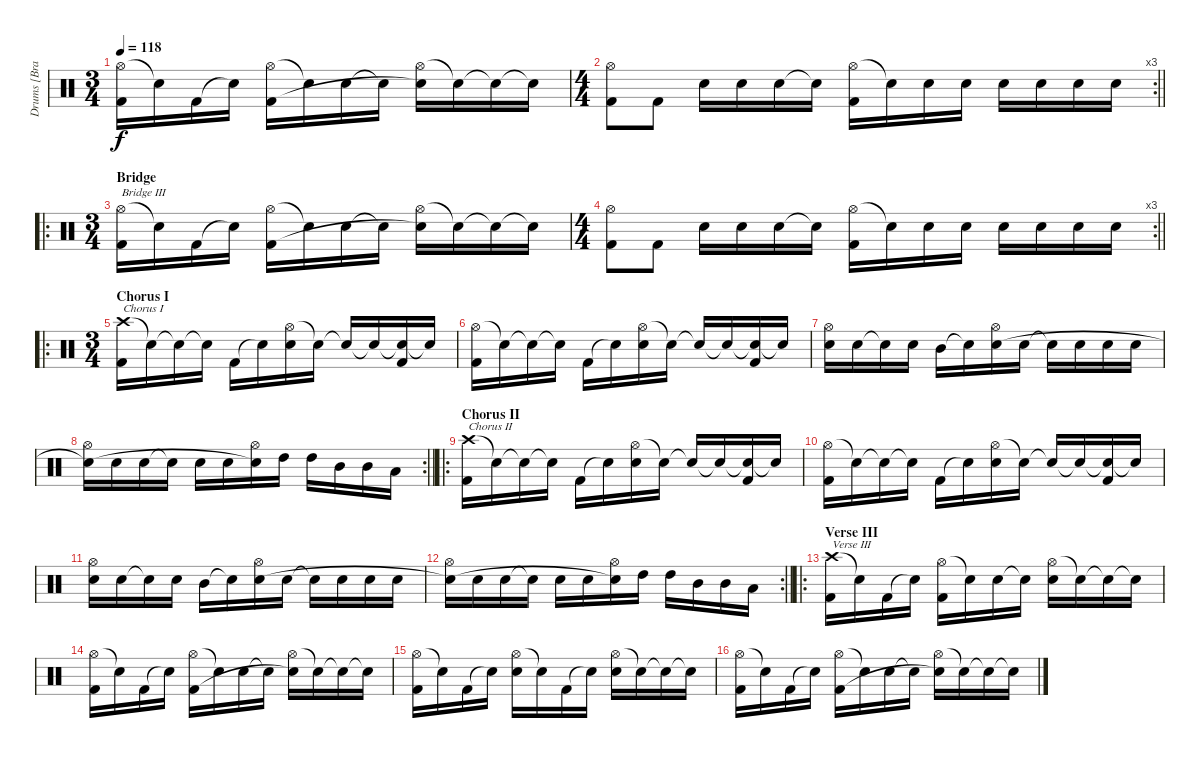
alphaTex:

\track ("Drums [Brann Dailor]" "Drums [Bra") {instrument percussion}
\staff {score}
\articulation defaults
\ts (3 4)
\tempo 118
\clef neutral
\ks c
("Hi-Hat (open)" "Kick (hit) 2").16{dy f} "Snare (hit)"{t}.16 "Kick (hit) 2".16 "Snare (hit)"{t}.16 ("Hi-Hat (open)" "Kick (hit) 2").16 "Snare (hit)"{t}.16 "Electric Snare (hit)".16 "Snare (hit)"{t}.16 ("Hi-Hat (open)" "Electric Snare (hit)"{t}).16 "Snare (hit)"{t}.16 "Snare (hit)"{t}.16 "Snare (hit)"{t}.16 |
\rc 3
\ts (4 4)
\barLineRight lightlight
("Hi-Hat (open)" "Kick (hit) 2").8 "Kick (hit) 2".8 "Electric Snare (hit)".16 "Electric Snare (hit)".16 "Electric Snare (hit)".16 "Snare (hit)"{t}.16 ("Hi-Hat (open)" "Kick (hit) 2").16 "Snare (hit)"{t}.16 "Electric Snare (hit)".16 "Electric Snare (hit)".16 "Electric Snare (hit)".16 "Electric Snare (hit)".16 "Electric Snare (hit)".16 "Electric Snare (hit)".16 |
\ro
\ts (3 4)
\section ("" "Bridge")
("Hi-Hat (open)" "Kick (hit) 2").16{txt "Bridge III"} "Snare (hit)"{t}.16 "Kick (hit) 2".16 "Snare (hit)"{t}.16 ("Hi-Hat (open)" "Kick (hit) 2").16 "Snare (hit)"{t}.16 "Electric Snare (hit)".16 "Snare (hit)"{t}.16 ("Hi-Hat (open)" "Electric Snare (hit)"{t}).16 "Snare (hit)"{t}.16 "Snare (hit)"{t}.16 "Snare (hit)"{t}.16 |
\rc 3
\ts (4 4)
\barLineRight lightlight
("Hi-Hat (open)" "Kick (hit) 2").8 "Kick (hit) 2".8 "Electric Snare (hit)".16 "Electric Snare (hit)".16 "Electric Snare (hit)".16 "Snare (hit)"{t}.16 ("Hi-Hat (open)" "Kick (hit) 2").16 "Snare (hit)"{t}.16 "Electric Snare (hit)".16 "Electric Snare (hit)".16 "Electric Snare (hit)".16 "Electric Snare (hit)".16 "Electric Snare (hit)".16 "Electric Snare (hit)".16 |
\ro
\ts (3 4)
\section ("" "Chorus I")
("Crash high (hit)" "Kick (hit) 2").16{txt "Chorus I"} "Snare (hit)"{t}.16 "Snare (hit)"{t}.16 "Snare (hit)"{t}.16 "Kick (hit) 2".16 "Snare (hit)"{t}.16 ("Hi-Hat (open)" "Electric Snare (hit)").16 "Snare (hit)"{t}.16 "Snare (hit)"{t}.16 "Snare (hit)"{t}.16 ("Snare (hit)"{t} "Kick (hit) 2").16 "Snare (hit)"{t}.16 |
("Hi-Hat (open)" "Kick (hit) 2").16 "Snare (hit)"{t}.16 "Snare (hit)"{t}.16 "Snare (hit)"{t}.16 "Kick (hit) 2".16 "Snare (hit)"{t}.16 ("Hi-Hat (open)" "Electric Snare (hit)").16 "Snare (hit)"{t}.16 "Snare (hit)"{t}.16 "Snare (hit)"{t}.16 ("Snare (hit)"{t} "Kick (hit) 2").16 "Snare (hit)"{t}.16 |
("Hi-Hat (open)" "Electric Snare (hit)").16 "Electric Snare (hit)".16 "Snare (hit)"{t}.16 "Snare (hit)".16 "Mid Tom (hit)".16 "Snare (hit)"{t}.16 ("Hi-Hat (open)" "Electric Snare (hit)").16 "Electric Snare (hit)".16 "Snare (hit)"{t}.16 "Electric Snare (hit)".16 "Electric Snare (hit)".16 "Electric Snare (hit)".16 |
\rc 2
\barLineRight lightlight
("Hi-Hat (open)" "Snare (hit)"{t}).16 "Electric Snare (hit)".16 "Electric Snare (hit)".16 "Snare (hit)"{t}.16 "Electric Snare (hit)".16 "Electric Snare (hit)".16 ("Hi-Hat (open)" "Snare (hit)"{t}).16 "High Tom (hit)".16 "High Tom (hit)".16 "Mid Tom (hit)".16 "Mid Tom (hit)".16 "Low Tom (hit)".16 |
\ro
\section ("" "Chorus II")
("Crash high (hit)" "Kick (hit) 2").16{txt "Chorus II"} "Snare (hit)"{t}.16 "Snare (hit)"{t}.16 "Snare (hit)"{t}.16 "Kick (hit) 2".16 "Snare (hit)"{t}.16 ("Hi-Hat (open)" "Electric Snare (hit)").16 "Snare (hit)"{t}.16 "Snare (hit)"{t}.16 "Snare (hit)"{t}.16 ("Snare (hit)"{t} "Kick (hit) 2").16 "Snare (hit)"{t}.16 |
("Hi-Hat (open)" "Kick (hit) 2").16 "Snare (hit)"{t}.16 "Snare (hit)"{t}.16 "Snare (hit)"{t}.16 "Kick (hit) 2".16 "Snare (hit)"{t}.16 ("Hi-Hat (open)" "Electric Snare (hit)").16 "Snare (hit)"{t}.16 "Snare (hit)"{t}.16 "Snare (hit)"{t}.16 ("Snare (hit)"{t} "Kick (hit) 2").16 "Snare (hit)"{t}.16 |
("Hi-Hat (open)" "Electric Snare (hit)").16 "Electric Snare (hit)".16 "Snare (hit)"{t}.16 "Snare (hit)".16 "Mid Tom (hit)".16 "Snare (hit)"{t}.16 ("Hi-Hat (open)" "Electric Snare (hit)").16 "Electric Snare (hit)".16 "Snare (hit)"{t}.16 "Electric Snare (hit)".16 "Electric Snare (hit)".16 "Electric Snare (hit)".16 |
\rc 2
\barLineRight lightlight
("Hi-Hat (open)" "Snare (hit)"{t}).16 "Electric Snare (hit)".16 "Electric Snare (hit)".16 "Snare (hit)"{t}.16 "Electric Snare (hit)".16 "Electric Snare (hit)".16 ("Hi-Hat (open)" "Snare (hit)"{t}).16 "High Tom (hit)".16 "High Tom (hit)".16 "Mid Tom (hit)".16 "Mid Tom (hit)".16 "Low Tom (hit)".16 |
\ro
\section ("" "Verse III")
("Crash high (hit)" "Kick (hit) 2").16{txt "Verse III"} "Snare (hit)"{t}.16 "Kick (hit) 2".16 "Snare (hit)"{t}.16 ("Hi-Hat (open)" "Kick (hit) 2").16 "Snare (hit)"{t}.16 "Electric Snare (hit)".16 "Snare (hit)"{t}.16 ("Hi-Hat (open)" "Electric Snare (hit)").16 "Snare (hit)"{t}.16 "Snare (hit)"{t}.16 "Snare (hit)"{t}.16 |
("Hi-Hat (open)" "Kick (hit) 2").16 "Snare (hit)"{t}.16 "Kick (hit) 2".16 "Snare (hit)"{t}.16 ("Hi-Hat (open)" "Kick (hit) 2").16 "Snare (hit)"{t}.16 "Electric Snare (hit)".16 "Snare (hit)"{t}.16 ("Hi-Hat (open)" "Electric Snare (hit)"{t}).16 "Snare (hit)"{t}.16 "Snare (hit)"{t}.16 "Snare (hit)"{t}.16 |
("Hi-Hat (open)" "Kick (hit) 2").16 "Snare (hit)"{t}.16 "Kick (hit) 2".16 "Snare (hit)"{t}.16 ("Hi-Hat (open)" "Electric Snare (hit)").16 "Snare (hit)"{t}.16 "Kick (hit) 2".16 "Snare (hit)"{t}.16 ("Hi-Hat (open)" "Electric Snare (hit)").16 "Snare (hit)"{t}.16 "Snare (hit)"{t}.16 "Snare (hit)"{t}.16 |
("Hi-Hat (open)" "Kick (hit) 2").16 "Snare (hit)"{t}.16 "Kick (hit) 2".16 "Snare (hit)"{t}.16 ("Hi-Hat (open)" "Kick (hit) 2").16 "Snare (hit)"{t}.16 "Electric Snare (hit)".16 "Snare (hit)"{t}.16 ("Hi-Hat (open)" "Electric Snare (hit)"{t}).16 "Snare (hit)"{t}.16 "Snare (hit)"{t}.16 "Snare (hit)"{t}.16
